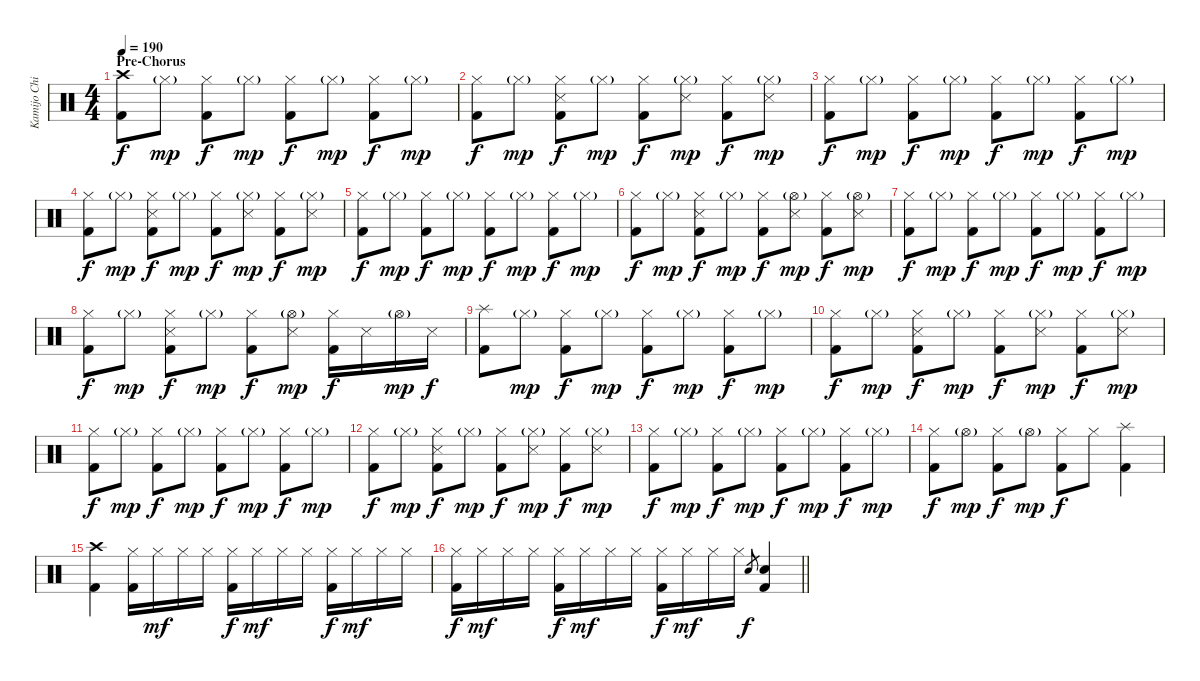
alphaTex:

\track ("Kamijo Chihiro" "Kamijo Chi") {instrument percussion}
\staff {score}
\articulation defaults
\ts (4 4)
\section ("" "Pre-Chorus")
\tempo 190
\clef neutral
\ks c
("Crash high (hit)" "Kick (hit) 2").8{dy f} "Hi-Hat (closed)"{g}.8{dy mp} ("Hi-Hat (closed)" "Kick (hit) 2").8{dy f} "Hi-Hat (closed)"{g}.8{dy mp} ("Hi-Hat (closed)" "Kick (hit) 2").8{dy f} "Hi-Hat (closed)"{g}.8{dy mp} ("Hi-Hat (closed)" "Kick (hit) 2").8{dy f} "Hi-Hat (closed)"{g}.8{dy mp} |
("Hi-Hat (closed)" "Kick (hit) 2").8{dy f} "Hi-Hat (closed)"{g}.8{dy mp} ("Hi-Hat (closed)" "Snare (side stick) 3" "Kick (hit) 2").8{dy f} "Hi-Hat (closed)"{g}.8{dy mp} ("Hi-Hat (closed)" "Kick (hit) 2").8{dy f} ("Hi-Hat (closed)"{g} "Snare (side stick) 3").8{dy mp} ("Hi-Hat (closed)" "Kick (hit) 2").8{dy f} ("Hi-Hat (closed)"{g} "Snare (side stick) 3").8{dy mp} |
("Hi-Hat (closed)" "Kick (hit) 2").8{dy f} "Hi-Hat (closed)"{g}.8{dy mp} ("Hi-Hat (closed)" "Kick (hit) 2").8{dy f} "Hi-Hat (closed)"{g}.8{dy mp} ("Hi-Hat (closed)" "Kick (hit) 2").8{dy f} "Hi-Hat (closed)"{g}.8{dy mp} ("Hi-Hat (closed)" "Kick (hit) 2").8{dy f} "Hi-Hat (closed)"{g}.8{dy mp} |
("Hi-Hat (closed)" "Kick (hit) 2").8{dy f} "Hi-Hat (closed)"{g}.8{dy mp} ("Hi-Hat (closed)" "Snare (side stick) 3" "Kick (hit) 2").8{dy f} "Hi-Hat (closed)"{g}.8{dy mp} ("Hi-Hat (closed)" "Kick (hit) 2").8{dy f} ("Hi-Hat (closed)"{g} "Snare (side stick) 3").8{dy mp} ("Hi-Hat (closed)" "Kick (hit) 2").8{dy f} ("Hi-Hat (closed)"{g} "Snare (side stick) 3").8{dy mp} |
("Hi-Hat (closed)" "Kick (hit) 2").8{dy f} "Hi-Hat (closed)"{g}.8{dy mp} ("Hi-Hat (closed)" "Kick (hit) 2").8{dy f} "Hi-Hat (closed)"{g}.8{dy mp} ("Hi-Hat (closed)" "Kick (hit) 2").8{dy f} "Hi-Hat (closed)"{g}.8{dy mp} ("Hi-Hat (closed)" "Kick (hit) 2").8{dy f} "Hi-Hat (closed)"{g}.8{dy mp} |
("Hi-Hat (closed)" "Kick (hit) 2").8{dy f} "Hi-Hat (closed)"{g}.8{dy mp} ("Hi-Hat (closed)" "Snare (side stick) 3" "Kick (hit) 2").8{dy f} "Hi-Hat (closed)"{g}.8{dy mp} ("Hi-Hat (closed)" "Kick (hit) 2").8{dy f} ("Hi-Hat (open)"{g} "Snare (side stick) 3").8{dy mp} ("Hi-Hat (closed)" "Kick (hit) 2").8{dy f} ("Hi-Hat (open)"{g} "Snare (side stick) 3").8{dy mp} |
("Hi-Hat (closed)" "Kick (hit) 2").8{dy f} "Hi-Hat (closed)"{g}.8{dy mp} ("Hi-Hat (closed)" "Kick (hit) 2").8{dy f} "Hi-Hat (closed)"{g}.8{dy mp} ("Hi-Hat (closed)" "Kick (hit) 2").8{dy f} "Hi-Hat (closed)"{g}.8{dy mp} ("Hi-Hat (closed)" "Kick (hit) 2").8{dy f} "Hi-Hat (closed)"{g}.8{dy mp} |
("Hi-Hat (closed)" "Kick (hit) 2").8{dy f} "Hi-Hat (closed)"{g}.8{dy mp} ("Hi-Hat (closed)" "Snare (side stick) 3" "Kick (hit) 2").8{dy f} "Hi-Hat (closed)"{g}.8{dy mp} ("Hi-Hat (closed)" "Kick (hit) 2").8{dy f} ("Hi-Hat (open)"{g} "Snare (side stick) 3").8{dy mp} ("Hi-Hat (closed)" "Kick (hit) 2").16{dy f} "Snare (side stick) 3".16 "Hi-Hat (open)"{g}.16{dy mp} "Snare (side stick) 3".16{dy f} |
("Splash (hit)" "Kick (hit) 2").8 "Hi-Hat (closed)"{g}.8{dy mp} ("Hi-Hat (closed)" "Kick (hit) 2").8{dy f} "Hi-Hat (closed)"{g}.8{dy mp} ("Hi-Hat (closed)" "Kick (hit) 2").8{dy f} "Hi-Hat (closed)"{g}.8{dy mp} ("Hi-Hat (closed)" "Kick (hit) 2").8{dy f} "Hi-Hat (closed)"{g}.8{dy mp} |
("Hi-Hat (closed)" "Kick (hit) 2").8{dy f} "Hi-Hat (closed)"{g}.8{dy mp} ("Hi-Hat (closed)" "Snare (side stick) 3" "Kick (hit) 2").8{dy f} "Hi-Hat (closed)"{g}.8{dy mp} ("Hi-Hat (closed)" "Kick (hit) 2").8{dy f} ("Hi-Hat (closed)"{g} "Snare (side stick) 3").8{dy mp} ("Hi-Hat (closed)" "Kick (hit) 2").8{dy f} ("Hi-Hat (closed)"{g} "Snare (side stick) 3").8{dy mp} |
("Hi-Hat (closed)" "Kick (hit) 2").8{dy f} "Hi-Hat (closed)"{g}.8{dy mp} ("Hi-Hat (closed)" "Kick (hit) 2").8{dy f} "Hi-Hat (closed)"{g}.8{dy mp} ("Hi-Hat (closed)" "Kick (hit) 2").8{dy f} "Hi-Hat (closed)"{g}.8{dy mp} ("Hi-Hat (closed)" "Kick (hit) 2").8{dy f} "Hi-Hat (closed)"{g}.8{dy mp} |
("Hi-Hat (closed)" "Kick (hit) 2").8{dy f} "Hi-Hat (closed)"{g}.8{dy mp} ("Hi-Hat (closed)" "Snare (side stick) 3" "Kick (hit) 2").8{dy f} "Hi-Hat (closed)"{g}.8{dy mp} ("Hi-Hat (closed)" "Kick (hit) 2").8{dy f} ("Hi-Hat (closed)"{g} "Snare (side stick) 3").8{dy mp} ("Hi-Hat (closed)" "Kick (hit) 2").8{dy f} ("Hi-Hat (closed)"{g} "Snare (side stick) 3").8{dy mp} |
("Hi-Hat (closed)" "Kick (hit) 2").8{dy f} "Hi-Hat (closed)"{g}.8{dy mp} ("Hi-Hat (closed)" "Kick (hit) 2").8{dy f} "Hi-Hat (closed)"{g}.8{dy mp} ("Hi-Hat (closed)" "Kick (hit) 2").8{dy f} "Hi-Hat (closed)"{g}.8{dy mp} ("Hi-Hat (closed)" "Kick (hit) 2").8{dy f} "Hi-Hat (closed)"{g}.8{dy mp} |
("Hi-Hat (closed)" "Kick (hit) 2").8{dy f} "Hi-Hat (open)"{g}.8{dy mp} ("Hi-Hat (closed)" "Kick (hit) 2").8{dy f} "Hi-Hat (open)"{g}.8{dy mp} ("Hi-Hat (closed)" "Kick (hit) 2").8{dy f} "Hi-Hat (closed)".8 ("Splash (hit)" "Kick (hit) 2").4 |
("Crash high (hit)" "Kick (hit) 2").4 ("Hi-Hat (closed)" "Kick (hit) 2").16 "Hi-Hat (closed)".16{dy mf} "Hi-Hat (closed)".16 "Hi-Hat (closed)".16 ("Hi-Hat (closed)" "Kick (hit) 2").16{dy f} "Hi-Hat (closed)".16{dy mf} "Hi-Hat (closed)".16 "Hi-Hat (closed)".16 ("Hi-Hat (closed)" "Kick (hit) 2").16{dy f} "Hi-Hat (closed)".16{dy mf} "Hi-Hat (closed)".16 "Hi-Hat (closed)".16 |
\barLineRight lightlight
("Hi-Hat (closed)" "Kick (hit) 2").16{dy f} "Hi-Hat (closed)".16{dy mf} "Hi-Hat (closed)".16 "Hi-Hat (closed)".16 ("Hi-Hat (closed)" "Kick (hit) 2").16{dy f} "Hi-Hat (closed)".16{dy mf} "Hi-Hat (closed)".16 "Hi-Hat (closed)".16 ("Hi-Hat (closed)" "Kick (hit) 2").16{dy f} "Hi-Hat (closed)".16{dy mf} "Hi-Hat (closed)".16 "Hi-Hat (closed)".16 "Snare (hit) 2".8{gr dy f} ("Snare (hit) 2" "Kick (hit) 2").4
